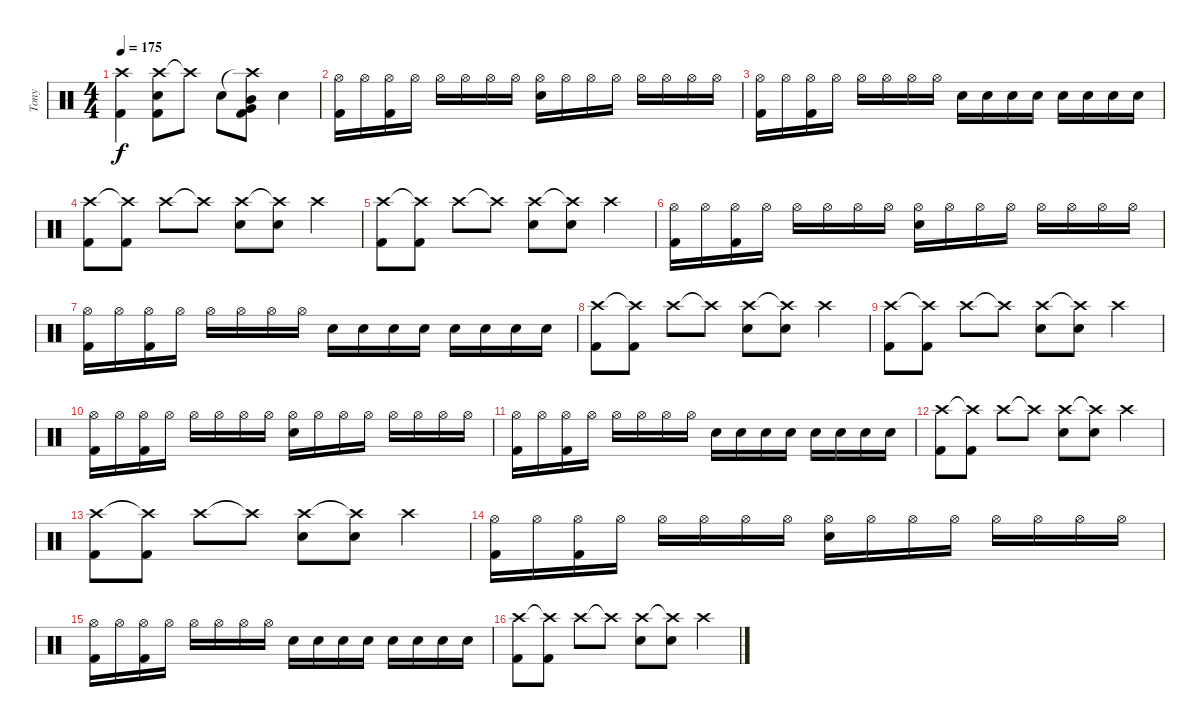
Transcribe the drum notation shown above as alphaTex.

\track ("Tony" "Tony") {instrument percussion}
\staff {score}
\articulation defaults
\ts (4 4)
\tempo 175
\clef neutral
\ks c
("Crash high (hit)" "Kick (hit) 2").4{dy f} ("Crash high (hit)" "Snare (hit) 2" "Kick (hit) 2").8 "Crash high (hit)"{t}.8 "Snare (hit) 2".8 ("Crash high (hit)"{t} "Mid Tom (hit)" "Very Low Tom (hit)" "Kick (hit) 2").8 "Snare (hit) 2".4 |
("Hi-Hat (open)" "Kick (hit) 2").16 "Hi-Hat (open)".16 ("Hi-Hat (open)" "Kick (hit) 2").16 "Hi-Hat (open)".16 "Hi-Hat (open)".16 "Hi-Hat (open)".16 "Hi-Hat (open)".16 "Hi-Hat (open)".16 ("Hi-Hat (open)" "Snare (hit) 2").16 "Hi-Hat (open)".16 "Hi-Hat (open)".16 "Hi-Hat (open)".16 "Hi-Hat (open)".16 "Hi-Hat (open)".16 "Hi-Hat (open)".16 "Hi-Hat (open)".16 |
("Hi-Hat (open)" "Kick (hit) 2").16 "Hi-Hat (open)".16 ("Hi-Hat (open)" "Kick (hit) 2").16 "Hi-Hat (open)".16 "Hi-Hat (open)".16 "Hi-Hat (open)".16 "Hi-Hat (open)".16 "Hi-Hat (open)".16 "Snare (hit) 2".16 "Snare (hit) 2".16 "Snare (hit) 2".16 "Snare (hit) 2".16 "Snare (hit) 2".16 "Snare (hit) 2".16 "Snare (hit) 2".16 "Snare (hit) 2".16 |
("Crash high (hit)" "Kick (hit) 2").8 ("Crash high (hit)"{t} "Kick (hit) 2").8 "Crash high (hit)".8 "Crash high (hit)"{t}.8 ("Crash high (hit)" "Snare (hit) 2").8 ("Crash high (hit)"{t} "Snare (hit) 2").8 "Crash high (hit)".4 |
("Crash high (hit)" "Kick (hit) 2").8 ("Crash high (hit)"{t} "Kick (hit) 2").8 "Crash high (hit)".8 "Crash high (hit)"{t}.8 ("Crash high (hit)" "Snare (hit) 2").8 ("Crash high (hit)"{t} "Snare (hit) 2").8 "Crash high (hit)".4 |
("Hi-Hat (open)" "Kick (hit) 2").16 "Hi-Hat (open)".16 ("Hi-Hat (open)" "Kick (hit) 2").16 "Hi-Hat (open)".16 "Hi-Hat (open)".16 "Hi-Hat (open)".16 "Hi-Hat (open)".16 "Hi-Hat (open)".16 ("Hi-Hat (open)" "Snare (hit) 2").16 "Hi-Hat (open)".16 "Hi-Hat (open)".16 "Hi-Hat (open)".16 "Hi-Hat (open)".16 "Hi-Hat (open)".16 "Hi-Hat (open)".16 "Hi-Hat (open)".16 |
("Hi-Hat (open)" "Kick (hit) 2").16 "Hi-Hat (open)".16 ("Hi-Hat (open)" "Kick (hit) 2").16 "Hi-Hat (open)".16 "Hi-Hat (open)".16 "Hi-Hat (open)".16 "Hi-Hat (open)".16 "Hi-Hat (open)".16 "Snare (hit) 2".16 "Snare (hit) 2".16 "Snare (hit) 2".16 "Snare (hit) 2".16 "Snare (hit) 2".16 "Snare (hit) 2".16 "Snare (hit) 2".16 "Snare (hit) 2".16 |
("Crash high (hit)" "Kick (hit) 2").8 ("Crash high (hit)"{t} "Kick (hit) 2").8 "Crash high (hit)".8 "Crash high (hit)"{t}.8 ("Crash high (hit)" "Snare (hit) 2").8 ("Crash high (hit)"{t} "Snare (hit) 2").8 "Crash high (hit)".4 |
("Crash high (hit)" "Kick (hit) 2").8 ("Crash high (hit)"{t} "Kick (hit) 2").8 "Crash high (hit)".8 "Crash high (hit)"{t}.8 ("Crash high (hit)" "Snare (hit) 2").8 ("Crash high (hit)"{t} "Snare (hit) 2").8 "Crash high (hit)".4 |
("Hi-Hat (open)" "Kick (hit) 2").16 "Hi-Hat (open)".16 ("Hi-Hat (open)" "Kick (hit) 2").16 "Hi-Hat (open)".16 "Hi-Hat (open)".16 "Hi-Hat (open)".16 "Hi-Hat (open)".16 "Hi-Hat (open)".16 ("Hi-Hat (open)" "Snare (hit) 2").16 "Hi-Hat (open)".16 "Hi-Hat (open)".16 "Hi-Hat (open)".16 "Hi-Hat (open)".16 "Hi-Hat (open)".16 "Hi-Hat (open)".16 "Hi-Hat (open)".16 |
("Hi-Hat (open)" "Kick (hit) 2").16 "Hi-Hat (open)".16 ("Hi-Hat (open)" "Kick (hit) 2").16 "Hi-Hat (open)".16 "Hi-Hat (open)".16 "Hi-Hat (open)".16 "Hi-Hat (open)".16 "Hi-Hat (open)".16 "Snare (hit) 2".16 "Snare (hit) 2".16 "Snare (hit) 2".16 "Snare (hit) 2".16 "Snare (hit) 2".16 "Snare (hit) 2".16 "Snare (hit) 2".16 "Snare (hit) 2".16 |
("Crash high (hit)" "Kick (hit) 2").8 ("Crash high (hit)"{t} "Kick (hit) 2").8 "Crash high (hit)".8 "Crash high (hit)"{t}.8 ("Crash high (hit)" "Snare (hit) 2").8 ("Crash high (hit)"{t} "Snare (hit) 2").8 "Crash high (hit)".4 |
("Crash high (hit)" "Kick (hit) 2").8 ("Crash high (hit)"{t} "Kick (hit) 2").8 "Crash high (hit)".8 "Crash high (hit)"{t}.8 ("Crash high (hit)" "Snare (hit) 2").8 ("Crash high (hit)"{t} "Snare (hit) 2").8 "Crash high (hit)".4 |
("Hi-Hat (open)" "Kick (hit) 2").16 "Hi-Hat (open)".16 ("Hi-Hat (open)" "Kick (hit) 2").16 "Hi-Hat (open)".16 "Hi-Hat (open)".16 "Hi-Hat (open)".16 "Hi-Hat (open)".16 "Hi-Hat (open)".16 ("Hi-Hat (open)" "Snare (hit) 2").16 "Hi-Hat (open)".16 "Hi-Hat (open)".16 "Hi-Hat (open)".16 "Hi-Hat (open)".16 "Hi-Hat (open)".16 "Hi-Hat (open)".16 "Hi-Hat (open)".16 |
("Hi-Hat (open)" "Kick (hit) 2").16 "Hi-Hat (open)".16 ("Hi-Hat (open)" "Kick (hit) 2").16 "Hi-Hat (open)".16 "Hi-Hat (open)".16 "Hi-Hat (open)".16 "Hi-Hat (open)".16 "Hi-Hat (open)".16 "Snare (hit) 2".16 "Snare (hit) 2".16 "Snare (hit) 2".16 "Snare (hit) 2".16 "Snare (hit) 2".16 "Snare (hit) 2".16 "Snare (hit) 2".16 "Snare (hit) 2".16 |
("Crash high (hit)" "Kick (hit) 2").8 ("Crash high (hit)"{t} "Kick (hit) 2").8 "Crash high (hit)".8 "Crash high (hit)"{t}.8 ("Crash high (hit)" "Snare (hit) 2").8 ("Crash high (hit)"{t} "Snare (hit) 2").8 "Crash high (hit)".4
